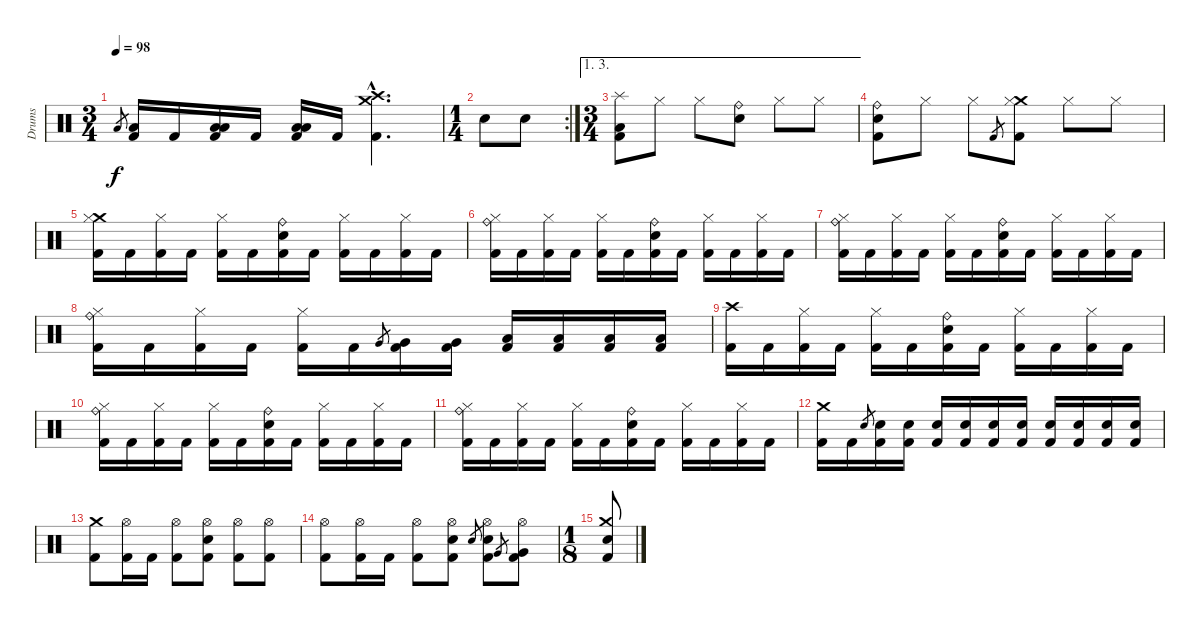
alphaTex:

\track ("Drums" "Drums") {instrument percussion}
\staff {score}
\articulation defaults
\ts (3 4)
\tempo 98
\clef neutral
\ks c "Low Floor Tom (hit)".8{gr dy f}
("Low Floor Tom (hit)" "Kick (hit) 2").16 "Kick (hit) 2".16 ("Low Floor Tom (hit)" "Low Floor Tom (hit)" "Kick (hit) 2").16 "Kick (hit) 2".16 ("Low Floor Tom (hit)" "Low Floor Tom (hit)" "Kick (hit) 2").16 "Kick (hit) 2".16 ("Crash high (hit)"{hac} "Crash medium (hit)"{hac} "Kick (hit) 2"{hac}).4{d} |
\rc 2
\ts (1 4)
"Electric Snare (hit)".8 "Electric Snare (hit)".8 |
\ae (1 3)
\ts (3 4)
("Splash (hit)" "Low Floor Tom (hit)" "Kick (hit) 2").8 "Hi-Hat (closed)".8 "Hi-Hat (closed)".8 ("Ride (bell)" "Electric Snare (hit)").8 "Hi-Hat (closed)".8 "Hi-Hat (closed)".8 |
("Ride (bell)" "Electric Snare (hit)" "Kick (hit) 2").8 "Hi-Hat (closed)".8 "Hi-Hat (closed)".8 "Kick (hit) 2".8{gr} ("Crash medium (hit)" "Hi-Hat (closed)" "Kick (hit) 2").8 "Hi-Hat (closed)".8 "Hi-Hat (closed)".8 |
("Crash medium (hit)" "Hi-Hat (closed)" "Kick (hit) 2").16 "Kick (hit) 2".16 ("Hi-Hat (closed)" "Kick (hit) 2").16 "Kick (hit) 2".16 ("Hi-Hat (closed)" "Kick (hit) 2").16 "Kick (hit) 2".16 ("Ride (bell)" "Electric Snare (hit)" "Kick (hit) 2").16 "Kick (hit) 2".16 ("Hi-Hat (closed)" "Kick (hit) 2").16 "Kick (hit) 2".16 ("Hi-Hat (closed)" "Kick (hit) 2").16 "Kick (hit) 2".16 |
("Ride (bell)" "Hi-Hat (closed)" "Kick (hit) 2").16 "Kick (hit) 2".16 ("Hi-Hat (closed)" "Kick (hit) 2").16 "Kick (hit) 2".16 ("Hi-Hat (closed)" "Kick (hit) 2").16 "Kick (hit) 2".16 ("Ride (bell)" "Electric Snare (hit)" "Kick (hit) 2").16 "Kick (hit) 2".16 ("Hi-Hat (closed)" "Kick (hit) 2").16 "Kick (hit) 2".16 ("Hi-Hat (closed)" "Kick (hit) 2").16 "Kick (hit) 2".16 |
("Ride (bell)" "Hi-Hat (closed)" "Kick (hit) 2").16 "Kick (hit) 2".16 ("Hi-Hat (closed)" "Kick (hit) 2").16 "Kick (hit) 2".16 ("Hi-Hat (closed)" "Kick (hit) 2").16 "Kick (hit) 2".16 ("Ride (bell)" "Electric Snare (hit)" "Kick (hit) 2").16 "Kick (hit) 2".16 ("Hi-Hat (closed)" "Kick (hit) 2").16 "Kick (hit) 2".16 ("Hi-Hat (closed)" "Kick (hit) 2").16 "Kick (hit) 2".16 |
("Ride (bell)" "Hi-Hat (closed)" "Kick (hit) 2").16 "Kick (hit) 2".16 ("Hi-Hat (closed)" "Kick (hit) 2").16 "Kick (hit) 2".16 ("Hi-Hat (closed)" "Kick (hit) 2").16 "Kick (hit) 2".16 "Very Low Tom (hit)".8{gr} ("Very Low Tom (hit)" "Kick (hit) 2").16 ("Very Low Tom (hit)" "Kick (hit) 2").16 ("Low Floor Tom (hit)" "Kick (hit) 2").16 ("Low Floor Tom (hit)" "Kick (hit) 2").16 ("Low Tom (hit)" "Kick (hit) 2").16 ("Low Tom (hit)" "Kick (hit) 2").16 |
("Crash high (hit)" "Kick (hit) 2").16 "Kick (hit) 2".16 ("Hi-Hat (closed)" "Kick (hit) 2").16 "Kick (hit) 2".16 ("Hi-Hat (closed)" "Kick (hit) 2").16 "Kick (hit) 2".16 ("Ride (bell)" "Electric Snare (hit)" "Kick (hit) 2").16 "Kick (hit) 2".16 ("Hi-Hat (closed)" "Kick (hit) 2").16 "Kick (hit) 2".16 ("Hi-Hat (closed)" "Kick (hit) 2").16 "Kick (hit) 2".16 |
("Ride (bell)" "Hi-Hat (closed)" "Kick (hit) 2").16 "Kick (hit) 2".16 ("Hi-Hat (closed)" "Kick (hit) 2").16 "Kick (hit) 2".16 ("Hi-Hat (closed)" "Kick (hit) 2").16 "Kick (hit) 2".16 ("Ride (bell)" "Electric Snare (hit)" "Kick (hit) 2").16 "Kick (hit) 2".16 ("Hi-Hat (closed)" "Kick (hit) 2").16 "Kick (hit) 2".16 ("Hi-Hat (closed)" "Kick (hit) 2").16 "Kick (hit) 2".16 |
("Ride (bell)" "Hi-Hat (closed)" "Kick (hit) 2").16 "Kick (hit) 2".16 ("Hi-Hat (closed)" "Kick (hit) 2").16 "Kick (hit) 2".16 ("Hi-Hat (closed)" "Kick (hit) 2").16 "Kick (hit) 2".16 ("Ride (bell)" "Electric Snare (hit)" "Kick (hit) 2").16 "Kick (hit) 2".16 ("Hi-Hat (closed)" "Kick (hit) 2").16 "Kick (hit) 2".16 ("Hi-Hat (closed)" "Kick (hit) 2").16 "Kick (hit) 2".16 |
("Crash medium (hit)" "Kick (hit) 2").16 "Kick (hit) 2".16 "Electric Snare (hit)".8{gr} ("Electric Snare (hit)" "Kick (hit) 2").16 ("Electric Snare (hit)" "Kick (hit) 2").16 ("Electric Snare (hit)" "Kick (hit) 2").16 ("Electric Snare (hit)" "Kick (hit) 2").16 ("Electric Snare (hit)" "Kick (hit) 2").16 ("Electric Snare (hit)" "Kick (hit) 2").16 ("Electric Snare (hit)" "Kick (hit) 2").16 ("Electric Snare (hit)" "Kick (hit) 2").16 ("Electric Snare (hit)" "Kick (hit) 2").16 ("Electric Snare (hit)" "Kick (hit) 2").16 |
("Crash medium (hit)" "Kick (hit) 2").8 ("Hi-Hat (open)" "Kick (hit) 2").16 "Kick (hit) 2".16 ("Hi-Hat (open)" "Kick (hit) 2").8 ("Hi-Hat (open)" "Electric Snare (hit)" "Kick (hit) 2").8 ("Hi-Hat (open)" "Kick (hit) 2").8 ("Hi-Hat (open)" "Kick (hit) 2").8 |
("Hi-Hat (open)" "Kick (hit) 2").8 ("Hi-Hat (open)" "Kick (hit) 2").16 "Kick (hit) 2".16 ("Hi-Hat (open)" "Kick (hit) 2").8 ("Hi-Hat (open)" "Electric Snare (hit)" "Kick (hit) 2").8 "Electric Snare (hit)".8{gr} ("Hi-Hat (open)" "Electric Snare (hit)" "Kick (hit) 2").8 "Very Low Tom (hit)".8{gr} ("Hi-Hat (open)" "Very Low Tom (hit)" "Kick (hit) 2").8 |
\ts (1 8)
("Crash medium (hit)" "Electric Snare (hit)" "Kick (hit) 2").8
